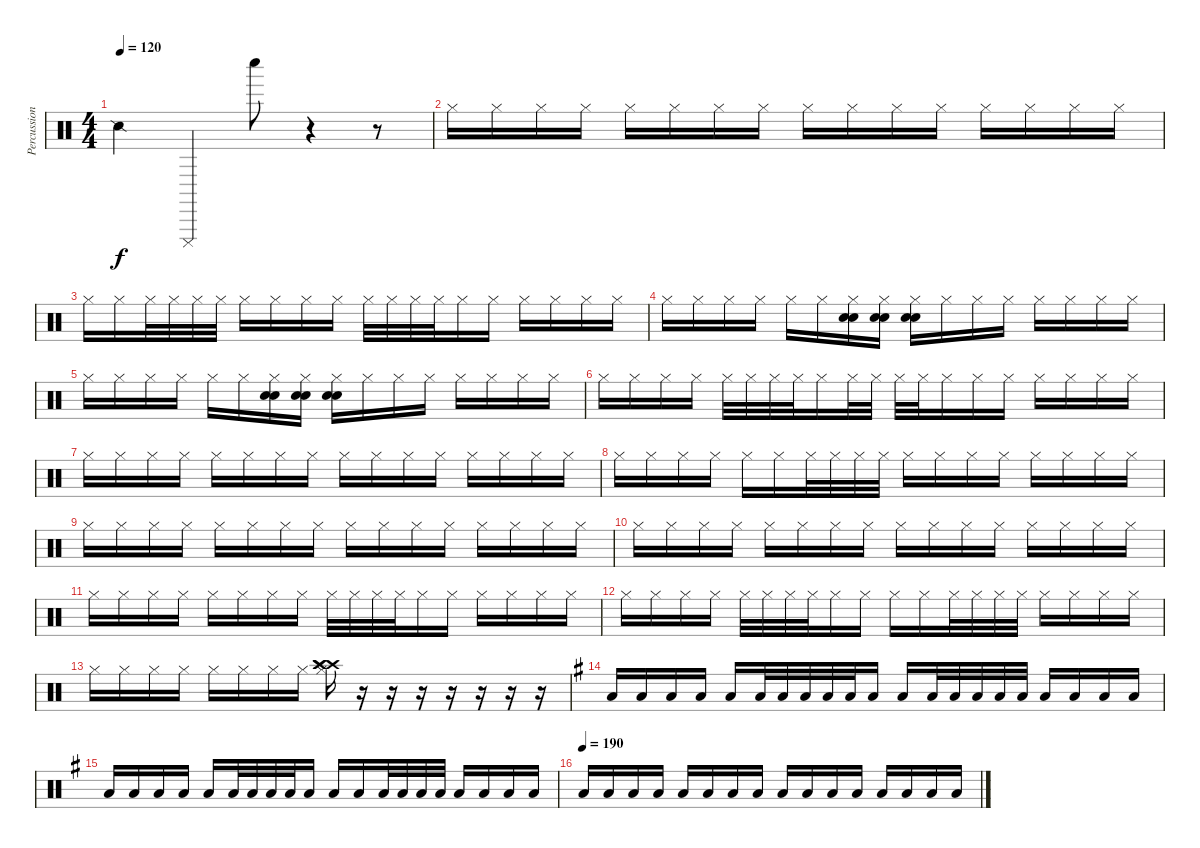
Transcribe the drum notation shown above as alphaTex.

\track ("Percussioni" "Percussion") {instrument percussion}
\staff {score}
\articulation defaults
\ts (4 4)
\tempo 120
\clef neutral
\ks c "Snare (side stick) 2".4{dy f} "Cuica (mute)".4 "Whistle low (hit)".8
r.4 r.8 |
"Hi-Hat (closed)".16 "Hi-Hat (closed)".16 "Hi-Hat (closed)".16 "Hi-Hat (closed)".16 "Hi-Hat (closed)".16 "Hi-Hat (closed)".16 "Hi-Hat (closed)".16 "Hi-Hat (closed)".16 "Hi-Hat (closed)".16 "Hi-Hat (closed)".16 "Hi-Hat (closed)".16 "Hi-Hat (closed)".16 "Hi-Hat (closed)".16 "Hi-Hat (closed)".16 "Hi-Hat (closed)".16 "Hi-Hat (closed)".16 |
"Hi-Hat (closed)".16 "Hi-Hat (closed)".16 "Hi-Hat (closed)".32 "Hi-Hat (closed)".32 "Hi-Hat (closed)".32 "Hi-Hat (closed)".32 "Hi-Hat (closed)".16 "Hi-Hat (closed)".16 "Hi-Hat (closed)".16 "Hi-Hat (closed)".16 "Hi-Hat (closed)".32 "Hi-Hat (closed)".32 "Hi-Hat (closed)".32 "Hi-Hat (closed)".32 "Hi-Hat (closed)".16 "Hi-Hat (closed)".16 "Hi-Hat (closed)".16 "Hi-Hat (closed)".16 "Hi-Hat (closed)".16 "Hi-Hat (closed)".16 |
"Hi-Hat (closed)".16 "Hi-Hat (closed)".16 "Hi-Hat (closed)".16 "Hi-Hat (closed)".16 "Hi-Hat (closed)".16 "Hi-Hat (closed)".16 ("Hi-Hat (closed)" "Electric Snare (hit)" "Hand Clap (hit)").16 ("Hi-Hat (closed)" "Electric Snare (hit)" "Hand Clap (hit)").16 ("Hi-Hat (closed)" "Electric Snare (hit)" "Hand Clap (hit)").16 "Hi-Hat (closed)".16 "Hi-Hat (closed)".16 "Hi-Hat (closed)".16 "Hi-Hat (closed)".16 "Hi-Hat (closed)".16 "Hi-Hat (closed)".16 "Hi-Hat (closed)".16 |
"Hi-Hat (closed)".16 "Hi-Hat (closed)".16 "Hi-Hat (closed)".16 "Hi-Hat (closed)".16 "Hi-Hat (closed)".16 "Hi-Hat (closed)".16 ("Hi-Hat (closed)" "Electric Snare (hit)" "Hand Clap (hit)").16 ("Hi-Hat (closed)" "Electric Snare (hit)" "Hand Clap (hit)").16 ("Hi-Hat (closed)" "Electric Snare (hit)" "Hand Clap (hit)").16 "Hi-Hat (closed)".16 "Hi-Hat (closed)".16 "Hi-Hat (closed)".16 "Hi-Hat (closed)".16 "Hi-Hat (closed)".16 "Hi-Hat (closed)".16 "Hi-Hat (closed)".16 |
"Hi-Hat (closed)".16 "Hi-Hat (closed)".16 "Hi-Hat (closed)".16 "Hi-Hat (closed)".16 "Hi-Hat (closed)".32 "Hi-Hat (closed)".32 "Hi-Hat (closed)".32 "Hi-Hat (closed)".32 "Hi-Hat (closed)".16 "Hi-Hat (closed)".32 "Hi-Hat (closed)".32 "Hi-Hat (closed)".32 "Hi-Hat (closed)".32 "Hi-Hat (closed)".16 "Hi-Hat (closed)".16 "Hi-Hat (closed)".16 "Hi-Hat (closed)".16 "Hi-Hat (closed)".16 "Hi-Hat (closed)".16 "Hi-Hat (closed)".16 |
"Hi-Hat (closed)".16 "Hi-Hat (closed)".16 "Hi-Hat (closed)".16 "Hi-Hat (closed)".16 "Hi-Hat (closed)".16 "Hi-Hat (closed)".16 "Hi-Hat (closed)".16 "Hi-Hat (closed)".16 "Hi-Hat (closed)".16 "Hi-Hat (closed)".16 "Hi-Hat (closed)".16 "Hi-Hat (closed)".16 "Hi-Hat (closed)".16 "Hi-Hat (closed)".16 "Hi-Hat (closed)".16 "Hi-Hat (closed)".16 |
"Hi-Hat (closed)".16 "Hi-Hat (closed)".16 "Hi-Hat (closed)".16 "Hi-Hat (closed)".16 "Hi-Hat (closed)".16 "Hi-Hat (closed)".16 "Hi-Hat (closed)".32 "Hi-Hat (closed)".32 "Hi-Hat (closed)".32 "Hi-Hat (closed)".32 "Hi-Hat (closed)".16 "Hi-Hat (closed)".16 "Hi-Hat (closed)".16 "Hi-Hat (closed)".16 "Hi-Hat (closed)".16 "Hi-Hat (closed)".16 "Hi-Hat (closed)".16 "Hi-Hat (closed)".16 |
"Hi-Hat (closed)".16 "Hi-Hat (closed)".16 "Hi-Hat (closed)".16 "Hi-Hat (closed)".16 "Hi-Hat (closed)".16 "Hi-Hat (closed)".16 "Hi-Hat (closed)".16 "Hi-Hat (closed)".16 "Hi-Hat (closed)".16 "Hi-Hat (closed)".16 "Hi-Hat (closed)".16 "Hi-Hat (closed)".16 "Hi-Hat (closed)".16 "Hi-Hat (closed)".16 "Hi-Hat (closed)".16 "Hi-Hat (closed)".16 |
"Hi-Hat (closed)".16 "Hi-Hat (closed)".16 "Hi-Hat (closed)".16 "Hi-Hat (closed)".16 "Hi-Hat (closed)".16 "Hi-Hat (closed)".16 "Hi-Hat (closed)".16 "Hi-Hat (closed)".16 "Hi-Hat (closed)".16 "Hi-Hat (closed)".16 "Hi-Hat (closed)".16 "Hi-Hat (closed)".16 "Hi-Hat (closed)".16 "Hi-Hat (closed)".16 "Hi-Hat (closed)".16 "Hi-Hat (closed)".16 |
"Hi-Hat (closed)".16 "Hi-Hat (closed)".16 "Hi-Hat (closed)".16 "Hi-Hat (closed)".16 "Hi-Hat (closed)".16 "Hi-Hat (closed)".16 "Hi-Hat (closed)".16 "Hi-Hat (closed)".16 "Hi-Hat (closed)".32 "Hi-Hat (closed)".32 "Hi-Hat (closed)".32 "Hi-Hat (closed)".32 "Hi-Hat (closed)".16 "Hi-Hat (closed)".16 "Hi-Hat (closed)".16 "Hi-Hat (closed)".16 "Hi-Hat (closed)".16 "Hi-Hat (closed)".16 |
"Hi-Hat (closed)".16 "Hi-Hat (closed)".16 "Hi-Hat (closed)".16 "Hi-Hat (closed)".16 "Hi-Hat (closed)".32 "Hi-Hat (closed)".32 "Hi-Hat (closed)".32 "Hi-Hat (closed)".32 "Hi-Hat (closed)".16 "Hi-Hat (closed)".16 "Hi-Hat (closed)".16 "Hi-Hat (closed)".16 "Hi-Hat (closed)".32 "Hi-Hat (closed)".32 "Hi-Hat (closed)".32 "Hi-Hat (closed)".32 "Hi-Hat (closed)".16 "Hi-Hat (closed)".16 "Hi-Hat (closed)".16 "Hi-Hat (closed)".16 |
"Hi-Hat (closed)".16 "Hi-Hat (closed)".16 "Hi-Hat (closed)".16 "Hi-Hat (closed)".16 "Hi-Hat (closed)".16 "Hi-Hat (closed)".16 "Hi-Hat (closed)".16 "Hi-Hat (closed)".16 ("Hi-Hat (closed)" "Crash high (hit)" "Crash high (hit)" "Crash high (hit)").16 r.16 r.16 r.16 r.16 r.16 r.16 r.16 |
\ks g "Low Floor Tom (hit)".16 "Low Floor Tom (hit)".16 "Low Floor Tom (hit)".16 "Low Floor Tom (hit)".16 "Low Floor Tom (hit)".16 "Low Floor Tom (hit)".32 "Low Floor Tom (hit)".32 "Low Floor Tom (hit)".32 "Low Floor Tom (hit)".32 "Low Floor Tom (hit)".32 "Low Floor Tom (hit)".16 "Low Floor Tom (hit)".16 "Low Floor Tom (hit)".32 "Low Floor Tom (hit)".32 "Low Floor Tom (hit)".32 "Low Floor Tom (hit)".32 "Low Floor Tom (hit)".32 "Low Floor Tom (hit)".16 "Low Floor Tom (hit)".16 "Low Floor Tom (hit)".16 "Low Floor Tom (hit)".16
|
"Low Floor Tom (hit)".16 "Low Floor Tom (hit)".16 "Low Floor Tom (hit)".16 "Low Floor Tom (hit)".16 "Low Floor Tom (hit)".16 "Low Floor Tom (hit)".32 "Low Floor Tom (hit)".32 "Low Floor Tom (hit)".32 "Low Floor Tom (hit)".32 "Low Floor Tom (hit)".16 "Low Floor Tom (hit)".16 "Low Floor Tom (hit)".16 "Low Floor Tom (hit)".32 "Low Floor Tom (hit)".32 "Low Floor Tom (hit)".32 "Low Floor Tom (hit)".32 "Low Floor Tom (hit)".16 "Low Floor Tom (hit)".16 "Low Floor Tom (hit)".16 "Low Floor Tom (hit)".16 |
\tempo (190)
"Low Floor Tom (hit)".16 "Low Floor Tom (hit)".16 "Low Floor Tom (hit)".16 "Low Floor Tom (hit)".16 "Low Floor Tom (hit)".16 "Low Floor Tom (hit)".16 "Low Floor Tom (hit)".16 "Low Floor Tom (hit)".16 "Low Floor Tom (hit)".16 "Low Floor Tom (hit)".16 "Low Floor Tom (hit)".16 "Low Floor Tom (hit)".16 "Low Floor Tom (hit)".16 "Low Floor Tom (hit)".16 "Low Floor Tom (hit)".16 "Low Floor Tom (hit)".16
